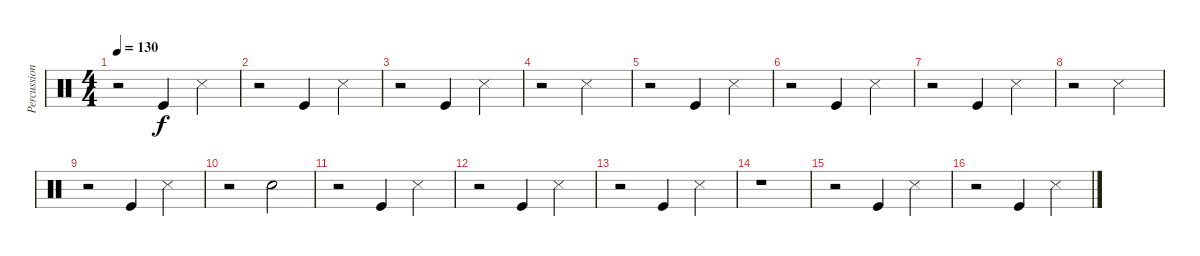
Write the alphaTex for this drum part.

\track ("Percussion" "Percussion") {instrument percussion}
\staff {score}
\articulation defaults
\ts (4 4)
\tempo 130
\clef neutral
\ks c
r.2{dy f} "Kick (hit)".4 "Snare (side stick) 3".4 |
r.2 "Kick (hit)".4 "Snare (side stick) 3".4 |
r.2 "Kick (hit)".4 "Snare (side stick) 3".4 |
r.2 "Metronome (hit)".2 |
r.2 "Kick (hit)".4 "Snare (side stick) 3".4 |
r.2 "Kick (hit)".4 "Snare (side stick) 3".4 |
r.2 "Kick (hit)".4 "Snare (side stick) 3".4 |
r.2 "Snare (side stick) 3".2 |
r.2 "Kick (hit)".4 "Snare (side stick) 3".4 |
r.2 "Hand Clap (hit)".2 |
r.2 "Kick (hit)".4 "Snare (side stick) 3".4 |
r.2 "Kick (hit)".4 "Snare (side stick) 3".4 |
r.2 "Kick (hit)".4 "Snare (side stick) 3".4 |
r.1 |
r.2 "Kick (hit)".4 "Snare (side stick) 3".4 |
r.2 "Kick (hit)".4 "Snare (side stick) 3".4
